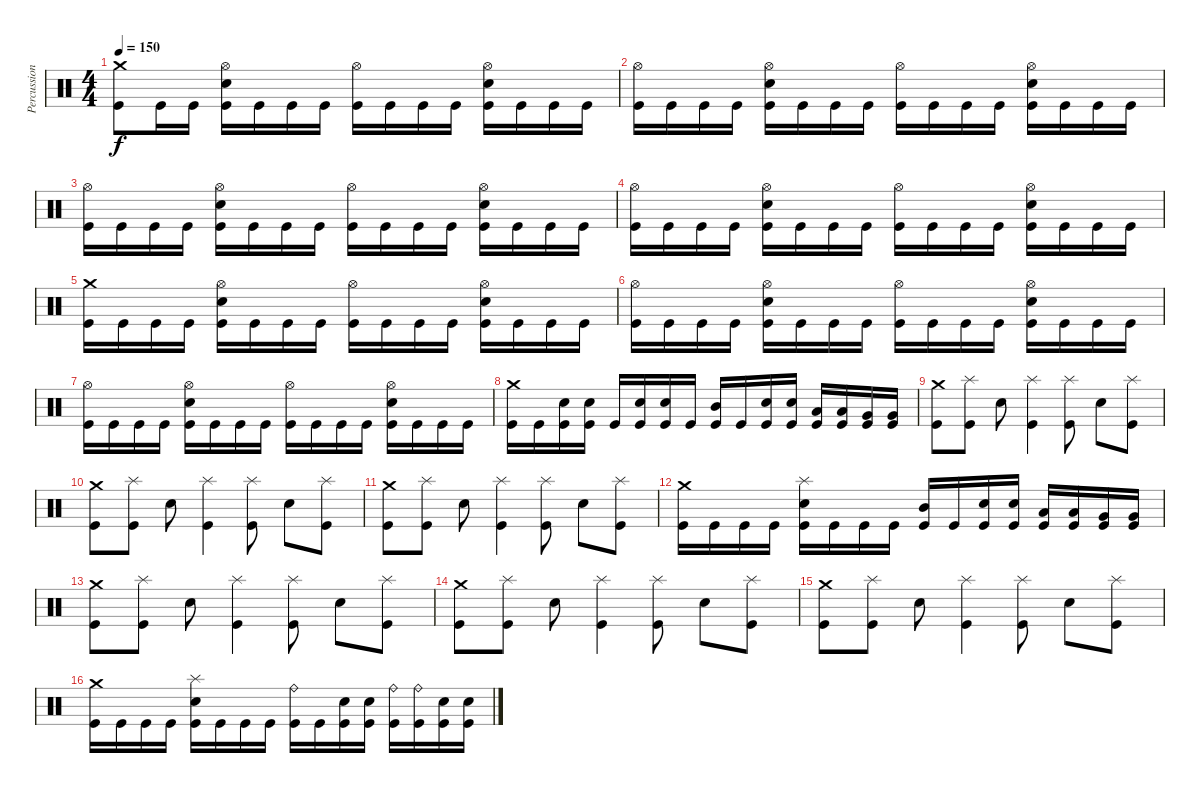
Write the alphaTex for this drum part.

\track ("Percussions" "Percussion") {instrument percussion}
\staff {score}
\articulation defaults
\ts (4 4)
\tempo 150
\clef neutral
\ks c
("Kick (hit)" "Crash medium (hit)").8{dy f} "Kick (hit)".16 "Kick (hit)".16 ("Kick (hit)" "Electric Snare (hit)" "Hi-Hat (open)").16 "Kick (hit)".16 "Kick (hit)".16 "Kick (hit)".16 ("Kick (hit)" "Hi-Hat (open)").16 "Kick (hit)".16 "Kick (hit)".16 "Kick (hit)".16 ("Kick (hit)" "Electric Snare (hit)" "Hi-Hat (open)").16 "Kick (hit)".16 "Kick (hit)".16 "Kick (hit)".16 |
("Kick (hit)" "Hi-Hat (open)").16 "Kick (hit)".16 "Kick (hit)".16 "Kick (hit)".16 ("Kick (hit)" "Electric Snare (hit)" "Hi-Hat (open)").16 "Kick (hit)".16 "Kick (hit)".16 "Kick (hit)".16 ("Kick (hit)" "Hi-Hat (open)").16 "Kick (hit)".16 "Kick (hit)".16 "Kick (hit)".16 ("Kick (hit)" "Electric Snare (hit)" "Hi-Hat (open)").16 "Kick (hit)".16 "Kick (hit)".16 "Kick (hit)".16 |
("Kick (hit)" "Hi-Hat (open)").16 "Kick (hit)".16 "Kick (hit)".16 "Kick (hit)".16 ("Kick (hit)" "Electric Snare (hit)" "Hi-Hat (open)").16 "Kick (hit)".16 "Kick (hit)".16 "Kick (hit)".16 ("Kick (hit)" "Hi-Hat (open)").16 "Kick (hit)".16 "Kick (hit)".16 "Kick (hit)".16 ("Kick (hit)" "Electric Snare (hit)" "Hi-Hat (open)").16 "Kick (hit)".16 "Kick (hit)".16 "Kick (hit)".16 |
("Kick (hit)" "Hi-Hat (open)").16 "Kick (hit)".16 "Kick (hit)".16 "Kick (hit)".16 ("Kick (hit)" "Electric Snare (hit)" "Hi-Hat (open)").16 "Kick (hit)".16 "Kick (hit)".16 "Kick (hit)".16 ("Kick (hit)" "Hi-Hat (open)").16 "Kick (hit)".16 "Kick (hit)".16 "Kick (hit)".16 ("Kick (hit)" "Electric Snare (hit)" "Hi-Hat (open)").16 "Kick (hit)".16 "Kick (hit)".16 "Kick (hit)".16 |
("Kick (hit)" "Crash medium (hit)").16 "Kick (hit)".16 "Kick (hit)".16 "Kick (hit)".16 ("Kick (hit)" "Electric Snare (hit)" "Hi-Hat (open)").16 "Kick (hit)".16 "Kick (hit)".16 "Kick (hit)".16 ("Kick (hit)" "Hi-Hat (open)").16 "Kick (hit)".16 "Kick (hit)".16 "Kick (hit)".16 ("Kick (hit)" "Electric Snare (hit)" "Hi-Hat (open)").16 "Kick (hit)".16 "Kick (hit)".16 "Kick (hit)".16 |
("Kick (hit)" "Hi-Hat (open)").16 "Kick (hit)".16 "Kick (hit)".16 "Kick (hit)".16 ("Kick (hit)" "Electric Snare (hit)" "Hi-Hat (open)").16 "Kick (hit)".16 "Kick (hit)".16 "Kick (hit)".16 ("Kick (hit)" "Hi-Hat (open)").16 "Kick (hit)".16 "Kick (hit)".16 "Kick (hit)".16 ("Kick (hit)" "Electric Snare (hit)" "Hi-Hat (open)").16 "Kick (hit)".16 "Kick (hit)".16 "Kick (hit)".16 |
("Kick (hit)" "Hi-Hat (open)").16 "Kick (hit)".16 "Kick (hit)".16 "Kick (hit)".16 ("Kick (hit)" "Electric Snare (hit)" "Hi-Hat (open)").16 "Kick (hit)".16 "Kick (hit)".16 "Kick (hit)".16 ("Kick (hit)" "Hi-Hat (open)").16 "Kick (hit)".16 "Kick (hit)".16 "Kick (hit)".16 ("Kick (hit)" "Electric Snare (hit)" "Hi-Hat (open)").16 "Kick (hit)".16 "Kick (hit)".16 "Kick (hit)".16 |
("Kick (hit)" "Crash medium (hit)").16 "Kick (hit)".16 ("Kick (hit)" "Electric Snare (hit)").16 ("Kick (hit)" "Electric Snare (hit)").16 "Kick (hit)".16 ("Kick (hit)" "Electric Snare (hit)").16 ("Kick (hit)" "Electric Snare (hit)").16 "Kick (hit)".16 ("Kick (hit)" "Mid Tom (hit)").16 "Kick (hit)".16 ("Kick (hit)" "Electric Snare (hit)").16 ("Kick (hit)" "Electric Snare (hit)").16 ("Kick (hit)" "Low Tom (hit)").16 ("Kick (hit)" "Low Tom (hit)").16 ("Kick (hit)" "Very Low Tom (hit)").16 ("Kick (hit)" "Very Low Tom (hit)").16 |
("Kick (hit)" "Crash medium (hit)").8 ("Kick (hit)" "Splash (hit)").8 "Electric Snare (hit)".8 ("Kick (hit)" "Splash (hit)").4 ("Kick (hit)" "Splash (hit)").8 "Electric Snare (hit)".8 ("Kick (hit)" "Splash (hit)").8 |
("Kick (hit)" "Crash medium (hit)").8 ("Kick (hit)" "Splash (hit)").8 "Electric Snare (hit)".8 ("Kick (hit)" "Splash (hit)").4 ("Kick (hit)" "Splash (hit)").8 "Electric Snare (hit)".8 ("Kick (hit)" "Splash (hit)").8 |
("Kick (hit)" "Crash medium (hit)").8 ("Kick (hit)" "Splash (hit)").8 "Electric Snare (hit)".8 ("Kick (hit)" "Splash (hit)").4 ("Kick (hit)" "Splash (hit)").8 "Electric Snare (hit)".8 ("Kick (hit)" "Splash (hit)").8 |
("Kick (hit)" "Crash medium (hit)").16 "Kick (hit)".16 "Kick (hit)".16 "Kick (hit)".16 ("Kick (hit)" "Electric Snare (hit)" "Splash (hit)").16 "Kick (hit)".16 "Kick (hit)".16 "Kick (hit)".16 ("Kick (hit)" "Mid Tom (hit)").16 "Kick (hit)".16 ("Kick (hit)" "Electric Snare (hit)").16 ("Kick (hit)" "Electric Snare (hit)").16 ("Kick (hit)" "Low Tom (hit)").16 ("Kick (hit)" "Low Tom (hit)").16 ("Kick (hit)" "Very Low Tom (hit)").16 ("Kick (hit)" "Very Low Tom (hit)").16 |
("Kick (hit)" "Crash medium (hit)").8 ("Kick (hit)" "Splash (hit)").8 "Electric Snare (hit)".8 ("Kick (hit)" "Splash (hit)").4 ("Kick (hit)" "Splash (hit)").8 "Electric Snare (hit)".8 ("Kick (hit)" "Splash (hit)").8 |
("Kick (hit)" "Crash medium (hit)").8 ("Kick (hit)" "Splash (hit)").8 "Electric Snare (hit)".8 ("Kick (hit)" "Splash (hit)").4 ("Kick (hit)" "Splash (hit)").8 "Electric Snare (hit)".8 ("Kick (hit)" "Splash (hit)").8 |
("Kick (hit)" "Crash medium (hit)").8 ("Kick (hit)" "Splash (hit)").8 "Electric Snare (hit)".8 ("Kick (hit)" "Splash (hit)").4 ("Kick (hit)" "Splash (hit)").8 "Electric Snare (hit)".8 ("Kick (hit)" "Splash (hit)").8 |
("Kick (hit)" "Crash medium (hit)").16 "Kick (hit)".16 "Kick (hit)".16 "Kick (hit)".16 ("Kick (hit)" "Electric Snare (hit)" "Splash (hit)").16 "Kick (hit)".16 "Kick (hit)".16 "Kick (hit)".16 ("Kick (hit)" "Ride (bell)").16 "Kick (hit)".16 ("Kick (hit)" "Electric Snare (hit)").16 ("Kick (hit)" "Electric Snare (hit)").16 ("Kick (hit)" "Ride (bell)").16 ("Kick (hit)" "Ride (bell)").16 ("Kick (hit)" "Electric Snare (hit)").16 ("Kick (hit)" "Electric Snare (hit)").16
